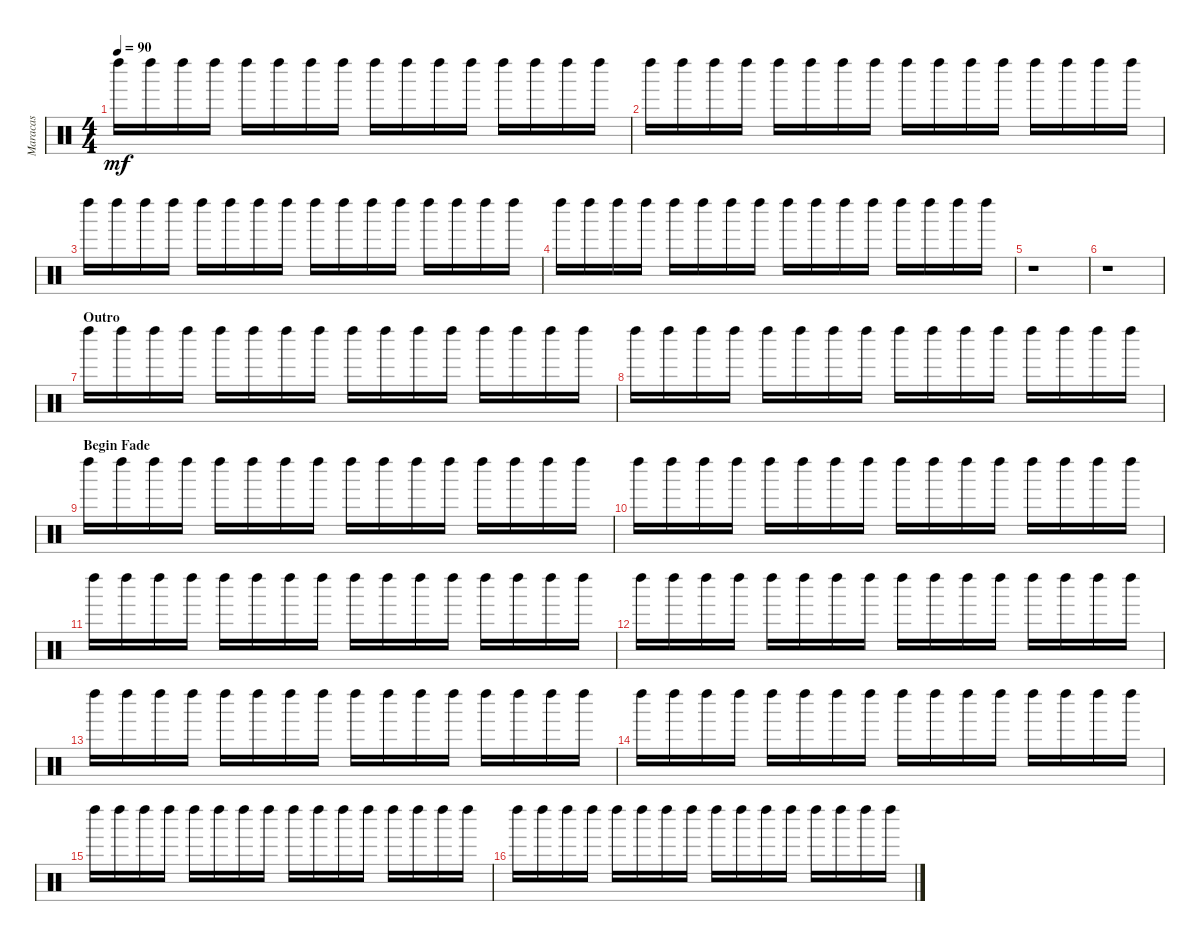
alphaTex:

\track ("Maracas" "Maracas") {instrument percussion}
\staff {score}
\articulation defaults
\ts (4 4)
\tempo 90
\clef neutral
\ks c "Left Maraca (hit)".16{dy mf} "Left Maraca (hit)".16 "Left Maraca (hit)".16 "Left Maraca (hit)".16 "Left Maraca (hit)".16 "Left Maraca (hit)".16 "Left Maraca (hit)".16 "Left Maraca (hit)".16 "Left Maraca (hit)".16 "Left Maraca (hit)".16 "Left Maraca (hit)".16 "Left Maraca (hit)".16 "Left Maraca (hit)".16 "Left Maraca (hit)".16 "Left Maraca (hit)".16 "Left Maraca (hit)".16
|
"Left Maraca (hit)".16 "Left Maraca (hit)".16 "Left Maraca (hit)".16 "Left Maraca (hit)".16 "Left Maraca (hit)".16 "Left Maraca (hit)".16 "Left Maraca (hit)".16 "Left Maraca (hit)".16 "Left Maraca (hit)".16 "Left Maraca (hit)".16 "Left Maraca (hit)".16 "Left Maraca (hit)".16 "Left Maraca (hit)".16 "Left Maraca (hit)".16 "Left Maraca (hit)".16 "Left Maraca (hit)".16 |
"Left Maraca (hit)".16 "Left Maraca (hit)".16 "Left Maraca (hit)".16 "Left Maraca (hit)".16 "Left Maraca (hit)".16 "Left Maraca (hit)".16 "Left Maraca (hit)".16 "Left Maraca (hit)".16 "Left Maraca (hit)".16 "Left Maraca (hit)".16 "Left Maraca (hit)".16 "Left Maraca (hit)".16 "Left Maraca (hit)".16 "Left Maraca (hit)".16 "Left Maraca (hit)".16 "Left Maraca (hit)".16 |
"Left Maraca (hit)".16 "Left Maraca (hit)".16 "Left Maraca (hit)".16 "Left Maraca (hit)".16 "Left Maraca (hit)".16 "Left Maraca (hit)".16 "Left Maraca (hit)".16 "Left Maraca (hit)".16 "Left Maraca (hit)".16 "Left Maraca (hit)".16 "Left Maraca (hit)".16 "Left Maraca (hit)".16 "Left Maraca (hit)".16 "Left Maraca (hit)".16 "Left Maraca (hit)".16 "Left Maraca (hit)".16 |
r.1 |
r.1 |
\section ("" "Outro")
"Left Maraca (hit)".16{volume 16} "Left Maraca (hit)".16 "Left Maraca (hit)".16 "Left Maraca (hit)".16 "Left Maraca (hit)".16 "Left Maraca (hit)".16 "Left Maraca (hit)".16 "Left Maraca (hit)".16 "Left Maraca (hit)".16 "Left Maraca (hit)".16 "Left Maraca (hit)".16 "Left Maraca (hit)".16 "Left Maraca (hit)".16 "Left Maraca (hit)".16 "Left Maraca (hit)".16 "Left Maraca (hit)".16 |
"Left Maraca (hit)".16 "Left Maraca (hit)".16 "Left Maraca (hit)".16 "Left Maraca (hit)".16 "Left Maraca (hit)".16 "Left Maraca (hit)".16 "Left Maraca (hit)".16 "Left Maraca (hit)".16 "Left Maraca (hit)".16 "Left Maraca (hit)".16 "Left Maraca (hit)".16 "Left Maraca (hit)".16 "Left Maraca (hit)".16 "Left Maraca (hit)".16 "Left Maraca (hit)".16 "Left Maraca (hit)".16 |
\section ("" "Begin Fade")
"Left Maraca (hit)".16{volume 14} "Left Maraca (hit)".16 "Left Maraca (hit)".16 "Left Maraca (hit)".16 "Left Maraca (hit)".16 "Left Maraca (hit)".16 "Left Maraca (hit)".16 "Left Maraca (hit)".16 "Left Maraca (hit)".16 "Left Maraca (hit)".16 "Left Maraca (hit)".16 "Left Maraca (hit)".16 "Left Maraca (hit)".16 "Left Maraca (hit)".16 "Left Maraca (hit)".16 "Left Maraca (hit)".16 |
"Left Maraca (hit)".16 "Left Maraca (hit)".16 "Left Maraca (hit)".16 "Left Maraca (hit)".16 "Left Maraca (hit)".16 "Left Maraca (hit)".16 "Left Maraca (hit)".16 "Left Maraca (hit)".16 "Left Maraca (hit)".16 "Left Maraca (hit)".16 "Left Maraca (hit)".16 "Left Maraca (hit)".16 "Left Maraca (hit)".16 "Left Maraca (hit)".16 "Left Maraca (hit)".16 "Left Maraca (hit)".16 |
"Left Maraca (hit)".16{volume 12} "Left Maraca (hit)".16 "Left Maraca (hit)".16 "Left Maraca (hit)".16 "Left Maraca (hit)".16 "Left Maraca (hit)".16 "Left Maraca (hit)".16 "Left Maraca (hit)".16 "Left Maraca (hit)".16 "Left Maraca (hit)".16 "Left Maraca (hit)".16 "Left Maraca (hit)".16 "Left Maraca (hit)".16 "Left Maraca (hit)".16 "Left Maraca (hit)".16 "Left Maraca (hit)".16 |
"Left Maraca (hit)".16 "Left Maraca (hit)".16 "Left Maraca (hit)".16 "Left Maraca (hit)".16 "Left Maraca (hit)".16 "Left Maraca (hit)".16 "Left Maraca (hit)".16 "Left Maraca (hit)".16 "Left Maraca (hit)".16 "Left Maraca (hit)".16 "Left Maraca (hit)".16 "Left Maraca (hit)".16 "Left Maraca (hit)".16 "Left Maraca (hit)".16 "Left Maraca (hit)".16 "Left Maraca (hit)".16 |
"Left Maraca (hit)".16{volume 10} "Left Maraca (hit)".16 "Left Maraca (hit)".16 "Left Maraca (hit)".16 "Left Maraca (hit)".16 "Left Maraca (hit)".16 "Left Maraca (hit)".16 "Left Maraca (hit)".16 "Left Maraca (hit)".16 "Left Maraca (hit)".16 "Left Maraca (hit)".16 "Left Maraca (hit)".16 "Left Maraca (hit)".16 "Left Maraca (hit)".16 "Left Maraca (hit)".16 "Left Maraca (hit)".16 |
"Left Maraca (hit)".16 "Left Maraca (hit)".16 "Left Maraca (hit)".16 "Left Maraca (hit)".16 "Left Maraca (hit)".16 "Left Maraca (hit)".16 "Left Maraca (hit)".16 "Left Maraca (hit)".16 "Left Maraca (hit)".16 "Left Maraca (hit)".16 "Left Maraca (hit)".16 "Left Maraca (hit)".16 "Left Maraca (hit)".16 "Left Maraca (hit)".16 "Left Maraca (hit)".16 "Left Maraca (hit)".16 |
"Left Maraca (hit)".16{volume 8} "Left Maraca (hit)".16 "Left Maraca (hit)".16 "Left Maraca (hit)".16 "Left Maraca (hit)".16 "Left Maraca (hit)".16 "Left Maraca (hit)".16 "Left Maraca (hit)".16 "Left Maraca (hit)".16 "Left Maraca (hit)".16 "Left Maraca (hit)".16 "Left Maraca (hit)".16 "Left Maraca (hit)".16 "Left Maraca (hit)".16 "Left Maraca (hit)".16 "Left Maraca (hit)".16 |
"Left Maraca (hit)".16 "Left Maraca (hit)".16 "Left Maraca (hit)".16 "Left Maraca (hit)".16 "Left Maraca (hit)".16 "Left Maraca (hit)".16 "Left Maraca (hit)".16 "Left Maraca (hit)".16 "Left Maraca (hit)".16 "Left Maraca (hit)".16 "Left Maraca (hit)".16 "Left Maraca (hit)".16 "Left Maraca (hit)".16 "Left Maraca (hit)".16 "Left Maraca (hit)".16 "Left Maraca (hit)".16
